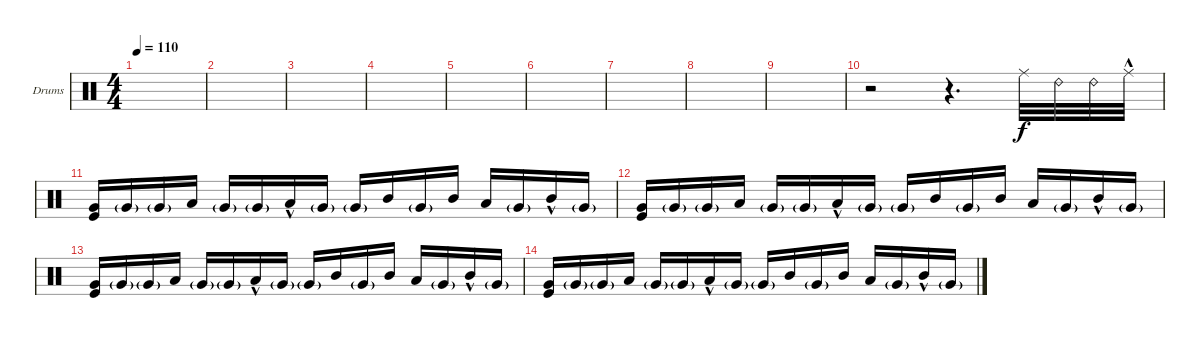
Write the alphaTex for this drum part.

\defaultSystemsLayout 4
\bracketExtendMode groupsimilarinstruments
\firstSystemTrackNameOrientation horizontal
\otherSystemsTrackNameOrientation horizontal
\track ("Drumkit" "Drums") {instrument percussion}
\staff {score}
\articulation defaults
\ts (4 4)
\tempo 110
\clef neutral
\scale
0.333333
\ks c
|
\scale
0.333333 |
\scale
0.333333 |
\scale
0.333333 |
\scale
0.333333 |
\scale
0.333333 |
\scale
0.333333 |
\scale
0.333333 |
\scale
0.333333 |
\scale
0.333333 r.2 r.4{d} "Ride (middle)".32 "Ride (bell) 2".32 "Ride (bell) 2".32 "Ride (middle)"{hac}.32 |
\scale
0.333333 ("Very Low Tom (hit)" "Kick (hit)").16 "Very Low Tom (hit)"{g}.16 "Very Low Tom (hit)"{g}.16 "Low Tom (hit)".16 "Very Low Tom (hit)"{g}.16 "Very Low Tom (hit)"{g}.16 "Low Tom (hit)"{hac}.16 "Very Low Tom (hit)"{g}.16 "Very Low Tom (hit)"{g}.16 "Mid Tom (hit)".16 "Very Low Tom (hit)"{g}.16 "Mid Tom (hit)".16 "Low Tom (hit)".16 "Very Low Tom (hit)"{g}.16 "Mid Tom (hit)"{hac}.16 "Very Low Tom (hit)"{g}.16 |
\scale
0.333333 ("Very Low Tom (hit)" "Kick (hit)").16 "Very Low Tom (hit)"{g}.16 "Very Low Tom (hit)"{g}.16 "Low Tom (hit)".16 "Very Low Tom (hit)"{g}.16 "Very Low Tom (hit)"{g}.16 "Low Tom (hit)"{hac}.16 "Very Low Tom (hit)"{g}.16 "Very Low Tom (hit)"{g}.16 "Mid Tom (hit)".16 "Very Low Tom (hit)"{g}.16 "Mid Tom (hit)".16 "Low Tom (hit)".16 "Very Low Tom (hit)"{g}.16 "Mid Tom (hit)"{hac}.16 "Very Low Tom (hit)"{g}.16 |
\scale
0.333333 ("Very Low Tom (hit)" "Kick (hit)").16 "Very Low Tom (hit)"{g}.16 "Very Low Tom (hit)"{g}.16 "Low Tom (hit)".16 "Very Low Tom (hit)"{g}.16 "Very Low Tom (hit)"{g}.16 "Low Tom (hit)"{hac}.16 "Very Low Tom (hit)"{g}.16 "Very Low Tom (hit)"{g}.16 "Mid Tom (hit)".16 "Very Low Tom (hit)"{g}.16 "Mid Tom (hit)".16 "Low Tom (hit)".16 "Very Low Tom (hit)"{g}.16 "Mid Tom (hit)"{hac}.16 "Very Low Tom (hit)"{g}.16 |
\scale
0.333333 ("Very Low Tom (hit)" "Kick (hit)").16 "Very Low Tom (hit)"{g}.16 "Very Low Tom (hit)"{g}.16 "Low Tom (hit)".16 "Very Low Tom (hit)"{g}.16 "Very Low Tom (hit)"{g}.16 "Low Tom (hit)"{hac}.16 "Very Low Tom (hit)"{g}.16 "Very Low Tom (hit)"{g}.16 "Mid Tom (hit)".16 "Very Low Tom (hit)"{g}.16 "Mid Tom (hit)".16 "Low Tom (hit)".16 "Very Low Tom (hit)"{g}.16 "Mid Tom (hit)"{hac}.16 "Very Low Tom (hit)"{g}.16 |
\scale
0.333333 |
\scale
0.333333
